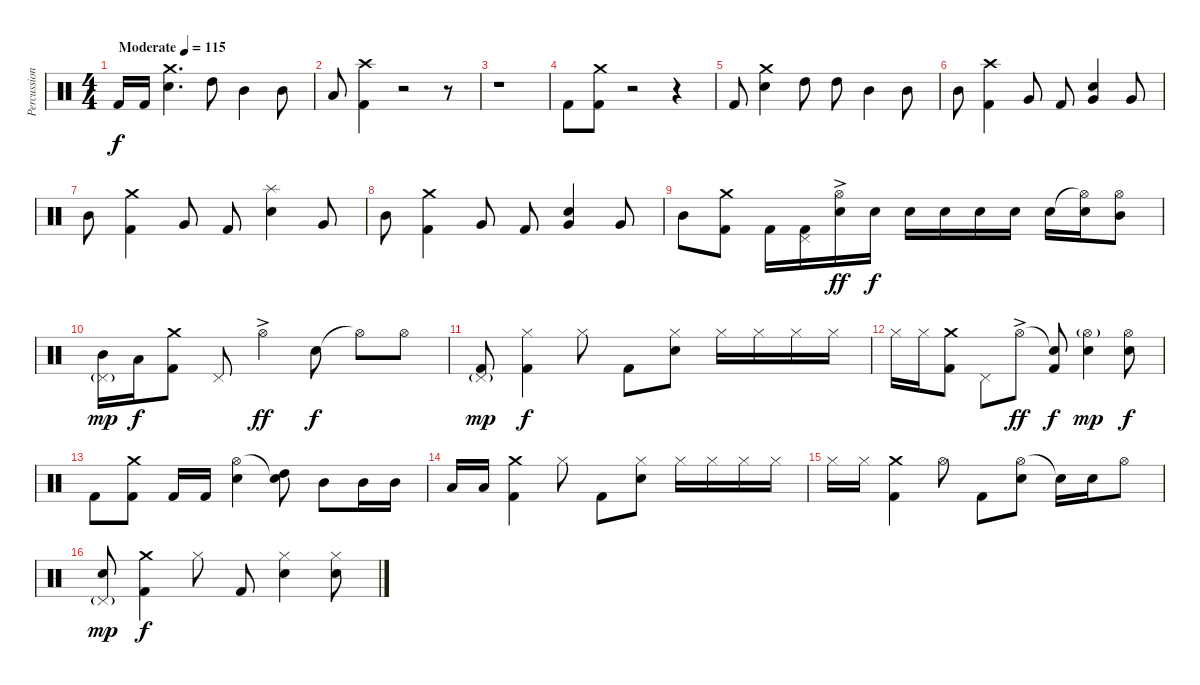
\track ("Percussion" "Percussion") {instrument percussion}
\staff {score}
\articulation defaults
\ts (4 4)
\tempo (115 "Moderate")
\clef neutral
\ks c "Kick (hit) 2".16{dy f} "Kick (hit) 2".16
("Crash medium (hit)" "Snare (hit) 2").4{d} "High Tom (hit)".8 "Mid Tom (hit)".4 "Mid Tom (hit)".8 |
"Low Tom (hit)".8 ("Crash high (hit)" "Kick (hit) 2").4 r.2 r.8 |
r.1 |
"Kick (hit) 2".8 ("Crash medium (hit)" "Kick (hit) 2").8 r.2 r.4 |
"Kick (hit) 2".8 ("Crash medium (hit)" "Snare (hit) 2").4 "High Tom (hit)".8 "High Tom (hit)".8 "Mid Tom (hit)".4 "Mid Tom (hit)".8 |
"Mid Tom (hit)".8 ("Crash high (hit)" "Kick (hit) 2").4 "Very Low Tom (hit)".8 "Kick (hit) 2".8 ("Snare (hit) 2" "Very Low Tom (hit)").4 "Very Low Tom (hit)".8 |
"Mid Tom (hit)".8 ("Crash medium (hit)" "Kick (hit) 2").4 "Very Low Tom (hit)".8 "Kick (hit) 2".8 ("Splash (hit)" "Snare (hit) 2").4 "Very Low Tom (hit)".8 |
"Mid Tom (hit)".8 ("Crash medium (hit)" "Kick (hit) 2").4 "Very Low Tom (hit)".8 "Kick (hit) 2".8 ("Snare (hit) 2" "Very Low Tom (hit)").4 "Very Low Tom (hit)".8 |
"Mid Tom (hit)".8 ("Crash medium (hit)" "Kick (hit) 2").8 "Kick (hit) 2".16 ("Pedal Hi-Hat (hit)" "Kick (hit) 2").16 ("Hi-Hat (open)"{ac} "Snare (hit) 2").16{dy ff} "Snare (hit) 2".16{dy f} "Snare (hit) 2".16 "Snare (hit) 2".16 "Snare (hit) 2".16 "Snare (hit) 2".16 "Snare (hit) 2".16 ("Hi-Hat (open)"{t} "Snare (hit) 2").16 ("Hi-Hat (open)" "Mid Tom (hit)").8 |
("Pedal Hi-Hat (hit)"{g} "Mid Tom (hit)").16{dy mp} "Low Tom (hit)".16{dy f} ("Crash medium (hit)" "Kick (hit) 2").8 "Pedal Hi-Hat (hit)".8 "Hi-Hat (open)"{ac}.4{dy ff} "Snare (hit) 2".8{dy f} "Hi-Hat (open)"{t}.8 "Hi-Hat (open)".8 |
("Pedal Hi-Hat (hit)"{g} "Kick (hit) 2").8{dy mp} ("Hi-Hat (closed)" "Kick (hit) 2").4{dy f} "Hi-Hat (closed)".8 "Kick (hit) 2".8 ("Hi-Hat (closed)" "Snare (hit) 2").8 "Hi-Hat (closed)".16 "Hi-Hat (closed)".16 "Hi-Hat (closed)".16 "Hi-Hat (closed)".16 |
"Hi-Hat (closed)".16 "Hi-Hat (closed)".16 ("Crash medium (hit)" "Kick (hit) 2").8 "Pedal Hi-Hat (hit)".8 "Hi-Hat (open)"{ac}.8{dy ff} ("Snare (hit)"{t} "Kick (hit) 2").8{dy f} ("Hi-Hat (open)"{g} "Snare (hit) 2").4{dy mp} ("Hi-Hat (open)" "Snare (hit) 2").8{dy f} |
"Kick (hit) 2".8 ("Crash medium (hit)" "Kick (hit) 2").8 "Kick (hit) 2".16 "Kick (hit) 2".16 ("Hi-Hat (open)" "Snare (hit) 2").4 ("Snare (hit)"{t} "High Tom (hit)").8 "Mid Tom (hit)".8 "Mid Tom (hit)".16 "Mid Tom (hit)".16 |
"Low Tom (hit)".16 "Low Tom (hit)".16 ("Crash medium (hit)" "Kick (hit) 2").4 "Hi-Hat (closed)".8 "Kick (hit) 2".8 ("Hi-Hat (closed)" "Snare (hit) 2").8 "Hi-Hat (closed)".16 "Hi-Hat (closed)".16 "Hi-Hat (closed)".16 "Hi-Hat (closed)".16 |
"Hi-Hat (closed)".16 "Hi-Hat (closed)".16 ("Crash medium (hit)" "Kick (hit) 2").4 "Hi-Hat (open)".8 "Kick (hit) 2".8 ("Hi-Hat (open)" "Snare (hit) 2").8 "Snare (hit)"{t}.16 "Snare (hit) 2".16 "Hi-Hat (open)".8 |
("Pedal Hi-Hat (hit)"{g} "Snare (hit) 2").8{dy mp} ("Crash medium (hit)" "Kick (hit) 2").4{dy f} "Hi-Hat (closed)".8 "Kick (hit) 2".8 ("Hi-Hat (closed)" "Snare (hit) 2").4 ("Hi-Hat (closed)" "Snare (hit) 2").8
